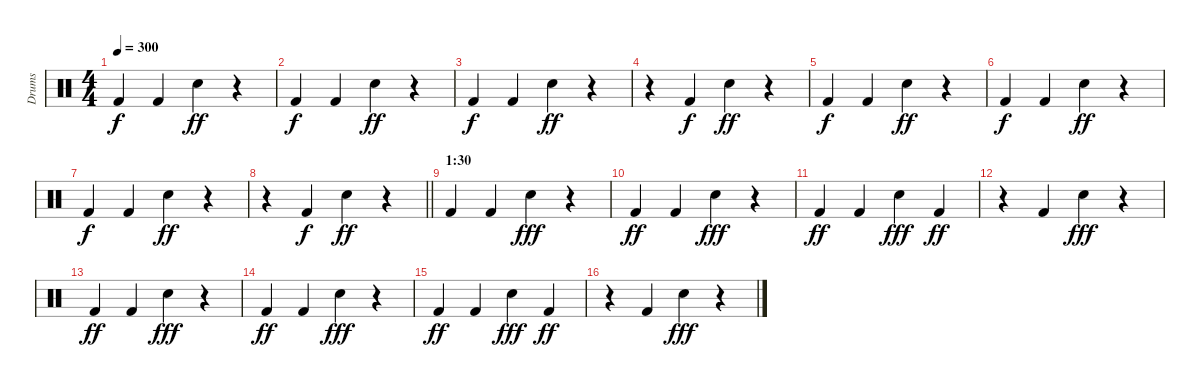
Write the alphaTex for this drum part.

\track ("Drums" "Drums") {instrument percussion}
\staff {score}
\articulation defaults
\ts (4 4)
\tempo 300
\clef neutral
\ks c "Kick (hit) 2".4{dy f} "Kick (hit) 2".4 "Electric Snare (hit)".4{dy ff}
r.4 |
"Kick (hit) 2".4{dy f} "Kick (hit) 2".4 "Electric Snare (hit)".4{dy ff} r.4 |
"Kick (hit) 2".4{dy f} "Kick (hit) 2".4 "Electric Snare (hit)".4{dy ff} r.4 |
r.4 "Kick (hit) 2".4{dy f} "Snare (hit) 2".4{dy ff} r.4 |
"Kick (hit) 2".4{dy f} "Kick (hit) 2".4 "Electric Snare (hit)".4{dy ff} r.4 |
"Kick (hit) 2".4{dy f} "Kick (hit) 2".4 "Electric Snare (hit)".4{dy ff} r.4 |
"Kick (hit) 2".4{dy f} "Kick (hit) 2".4 "Electric Snare (hit)".4{dy ff} r.4 |
\barLineRight lightlight
r.4 "Kick (hit) 2".4{dy f} "Snare (hit) 2".4{dy ff} r.4 |
\section ("" "1:30")
"Kick (hit) 2".4 "Kick (hit) 2".4 "Electric Snare (hit)".4{dy fff} r.4 |
"Kick (hit) 2".4{dy ff} "Kick (hit) 2".4 "Electric Snare (hit)".4{dy fff} r.4 |
"Kick (hit) 2".4{dy ff} "Kick (hit) 2".4 "Electric Snare (hit)".4{dy fff} "Kick (hit) 2".4{dy ff} |
r.4 "Kick (hit) 2".4 "Electric Snare (hit)".4{dy fff} r.4 |
"Kick (hit) 2".4{dy ff} "Kick (hit) 2".4 "Electric Snare (hit)".4{dy fff} r.4 |
"Kick (hit) 2".4{dy ff} "Kick (hit) 2".4 "Electric Snare (hit)".4{dy fff} r.4 |
"Kick (hit) 2".4{dy ff} "Kick (hit) 2".4 "Electric Snare (hit)".4{dy fff} "Kick (hit) 2".4{dy ff} |
r.4 "Kick (hit) 2".4 "Electric Snare (hit)".4{dy fff} r.4
